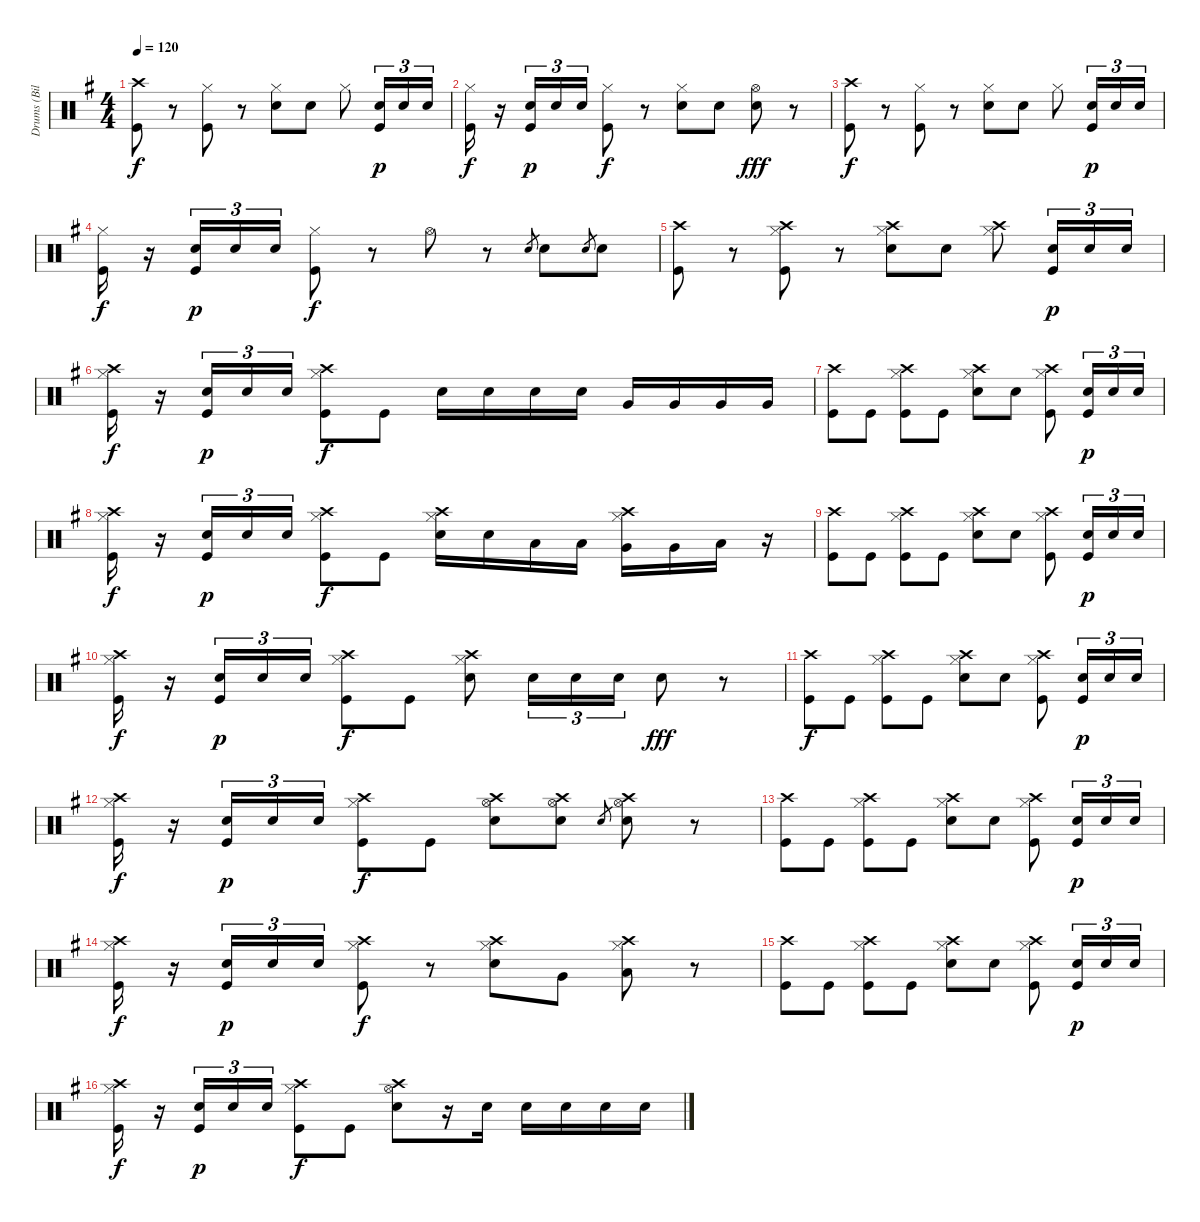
\track ("Drums (Bill Ward)" "Drums (Bil") {instrument percussion}
\staff {score}
\articulation defaults
\ts (4 4)
\tempo 120
\clef neutral
\ks g
("Crash high (hit)" "Kick (hit)").8{dy f} r.8 ("Hi-Hat (closed)" "Kick (hit)").8 r.8 ("Hi-Hat (closed)" "Electric Snare (hit)").8 "Electric Snare (hit)".8 "Hi-Hat (closed)".8 ("Electric Snare (hit)" "Kick (hit)").16{tu (3 2) dy p} "Electric Snare (hit)".16{tu (3 2)} "Electric Snare (hit)".16{tu (3 2)} |
("Hi-Hat (closed)" "Kick (hit)").16{dy f} r.16 ("Electric Snare (hit)" "Kick (hit)").16{tu (3 2) dy p} "Electric Snare (hit)".16{tu (3 2)} "Electric Snare (hit)".16{tu (3 2)} ("Hi-Hat (closed)" "Kick (hit)").8{dy f} r.8 ("Hi-Hat (closed)" "Electric Snare (hit)").8 "Electric Snare (hit)".8 ("Hi-Hat (open)" "Electric Snare (hit)").8{dy fff} r.8 |
("Crash high (hit)" "Kick (hit)").8{dy f} r.8 ("Hi-Hat (closed)" "Kick (hit)").8 r.8 ("Hi-Hat (closed)" "Electric Snare (hit)").8 "Electric Snare (hit)".8 "Hi-Hat (closed)".8 ("Electric Snare (hit)" "Kick (hit)").16{tu (3 2) dy p} "Electric Snare (hit)".16{tu (3 2)} "Electric Snare (hit)".16{tu (3 2)} |
("Hi-Hat (closed)" "Kick (hit)").16{dy f} r.16 ("Electric Snare (hit)" "Kick (hit)").16{tu (3 2) dy p} "Electric Snare (hit)".16{tu (3 2)} "Electric Snare (hit)".16{tu (3 2)} ("Hi-Hat (closed)" "Kick (hit)").8{dy f} r.8 "Hi-Hat (open)".8 r.8 "Electric Snare (hit)".8{gr} "Electric Snare (hit)".8 "Electric Snare (hit)".8{gr} "Electric Snare (hit)".8 |
("Crash high (hit)" "Kick (hit)").8 r.8 ("Crash high (hit)" "Hi-Hat (closed)" "Kick (hit)").8 r.8 ("Crash high (hit)" "Hi-Hat (closed)" "Electric Snare (hit)").8 "Electric Snare (hit)".8 ("Crash high (hit)" "Hi-Hat (closed)").8 ("Electric Snare (hit)" "Kick (hit)").16{tu (3 2) dy p} "Electric Snare (hit)".16{tu (3 2)} "Electric Snare (hit)".16{tu (3 2)} |
("Crash high (hit)" "Hi-Hat (closed)" "Kick (hit)").16{dy f} r.16 ("Electric Snare (hit)" "Kick (hit)").16{tu (3 2) dy p} "Electric Snare (hit)".16{tu (3 2)} "Electric Snare (hit)".16{tu (3 2)} ("Crash high (hit)" "Hi-Hat (closed)" "Kick (hit)").8{dy f} "Kick (hit)".8 "Electric Snare (hit)".16 "Electric Snare (hit)".16 "Electric Snare (hit)".16 "Electric Snare (hit)".16 "Very Low Tom (hit)".16 "Very Low Tom (hit)".16 "Very Low Tom (hit)".16 "Very Low Tom (hit)".16 |
("Crash high (hit)" "Kick (hit)").8 "Kick (hit)".8 ("Crash high (hit)" "Hi-Hat (closed)" "Kick (hit)").8 "Kick (hit)".8 ("Crash high (hit)" "Hi-Hat (closed)" "Electric Snare (hit)").8 "Electric Snare (hit)".8 ("Crash high (hit)" "Hi-Hat (closed)" "Kick (hit)").8 ("Electric Snare (hit)" "Kick (hit)").16{tu (3 2) dy p} "Electric Snare (hit)".16{tu (3 2)} "Electric Snare (hit)".16{tu (3 2)} |
("Crash high (hit)" "Hi-Hat (closed)" "Kick (hit)").16{dy f} r.16 ("Electric Snare (hit)" "Kick (hit)").16{tu (3 2) dy p} "Electric Snare (hit)".16{tu (3 2)} "Electric Snare (hit)".16{tu (3 2)} ("Crash high (hit)" "Hi-Hat (closed)" "Kick (hit)").8{dy f} "Kick (hit)".8 ("Crash high (hit)" "Hi-Hat (closed)" "Electric Snare (hit)").16 "Electric Snare (hit)".16 "Low Tom (hit)".16 "Low Tom (hit)".16 ("Crash high (hit)" "Hi-Hat (closed)" "Very Low Tom (hit)").16 "Very Low Tom (hit)".16 "Low Floor Tom (hit)".16 r.16 |
("Crash high (hit)" "Kick (hit)").8 "Kick (hit)".8 ("Crash high (hit)" "Hi-Hat (closed)" "Kick (hit)").8 "Kick (hit)".8 ("Crash high (hit)" "Hi-Hat (closed)" "Electric Snare (hit)").8 "Electric Snare (hit)".8 ("Crash high (hit)" "Hi-Hat (closed)" "Kick (hit)").8 ("Electric Snare (hit)" "Kick (hit)").16{tu (3 2) dy p} "Electric Snare (hit)".16{tu (3 2)} "Electric Snare (hit)".16{tu (3 2)} |
("Crash high (hit)" "Hi-Hat (closed)" "Kick (hit)").16{dy f} r.16 ("Electric Snare (hit)" "Kick (hit)").16{tu (3 2) dy p} "Electric Snare (hit)".16{tu (3 2)} "Electric Snare (hit)".16{tu (3 2)} ("Crash high (hit)" "Hi-Hat (closed)" "Kick (hit)").8{dy f} "Kick (hit)".8 ("Crash high (hit)" "Hi-Hat (closed)" "Electric Snare (hit)").8 "Electric Snare (hit)".16{tu (3 2)} "Electric Snare (hit)".16{tu (3 2)} "Electric Snare (hit)".16{tu (3 2)} "Electric Snare (hit)".8{dy fff} r.8 |
("Crash high (hit)" "Kick (hit)").8{dy f} "Kick (hit)".8 ("Crash high (hit)" "Hi-Hat (closed)" "Kick (hit)").8 "Kick (hit)".8 ("Crash high (hit)" "Hi-Hat (closed)" "Electric Snare (hit)").8 "Electric Snare (hit)".8 ("Crash high (hit)" "Hi-Hat (closed)" "Kick (hit)").8 ("Electric Snare (hit)" "Kick (hit)").16{tu (3 2) dy p} "Electric Snare (hit)".16{tu (3 2)} "Electric Snare (hit)".16{tu (3 2)} |
("Crash high (hit)" "Hi-Hat (closed)" "Kick (hit)").16{dy f} r.16 ("Electric Snare (hit)" "Kick (hit)").16{tu (3 2) dy p} "Electric Snare (hit)".16{tu (3 2)} "Electric Snare (hit)".16{tu (3 2)} ("Crash high (hit)" "Hi-Hat (closed)" "Kick (hit)").8{dy f} "Kick (hit)".8 ("Crash high (hit)" "Hi-Hat (open)" "Electric Snare (hit)").8 ("Crash high (hit)" "Hi-Hat (open)" "Electric Snare (hit)").8 "Electric Snare (hit)".8{gr} ("Crash high (hit)" "Hi-Hat (open)" "Electric Snare (hit)").8 r.8 |
("Crash high (hit)" "Kick (hit)").8 "Kick (hit)".8 ("Crash high (hit)" "Hi-Hat (closed)" "Kick (hit)").8 "Kick (hit)".8 ("Crash high (hit)" "Hi-Hat (closed)" "Electric Snare (hit)").8 "Electric Snare (hit)".8 ("Crash high (hit)" "Hi-Hat (closed)" "Kick (hit)").8 ("Electric Snare (hit)" "Kick (hit)").16{tu (3 2) dy p} "Electric Snare (hit)".16{tu (3 2)} "Electric Snare (hit)".16{tu (3 2)} |
("Crash high (hit)" "Hi-Hat (closed)" "Kick (hit)").16{dy f} r.16 ("Electric Snare (hit)" "Kick (hit)").16{tu (3 2) dy p} "Electric Snare (hit)".16{tu (3 2)} "Electric Snare (hit)".16{tu (3 2)} ("Crash high (hit)" "Hi-Hat (closed)" "Kick (hit)").8{dy f} r.8 ("Crash high (hit)" "Hi-Hat (closed)" "Electric Snare (hit)").8 "Very Low Tom (hit)".8 ("Crash high (hit)" "Hi-Hat (closed)" "Low Floor Tom (hit)").8 r.8 |
("Crash high (hit)" "Kick (hit)").8 "Kick (hit)".8 ("Crash high (hit)" "Hi-Hat (closed)" "Kick (hit)").8 "Kick (hit)".8 ("Crash high (hit)" "Hi-Hat (closed)" "Electric Snare (hit)").8 "Electric Snare (hit)".8 ("Crash high (hit)" "Hi-Hat (closed)" "Kick (hit)").8 ("Electric Snare (hit)" "Kick (hit)").16{tu (3 2) dy p} "Electric Snare (hit)".16{tu (3 2)} "Electric Snare (hit)".16{tu (3 2)} |
("Crash high (hit)" "Hi-Hat (closed)" "Kick (hit)").16{dy f} r.16 ("Electric Snare (hit)" "Kick (hit)").16{tu (3 2) dy p} "Electric Snare (hit)".16{tu (3 2)} "Electric Snare (hit)".16{tu (3 2)} ("Crash high (hit)" "Hi-Hat (closed)" "Kick (hit)").8{dy f} "Kick (hit)".8 ("Crash high (hit)" "Hi-Hat (open)" "Electric Snare (hit)").8 r.16 "Electric Snare (hit)".16 "Electric Snare (hit)".16 "Electric Snare (hit)".16 "Electric Snare (hit)".16 "Electric Snare (hit)".16
